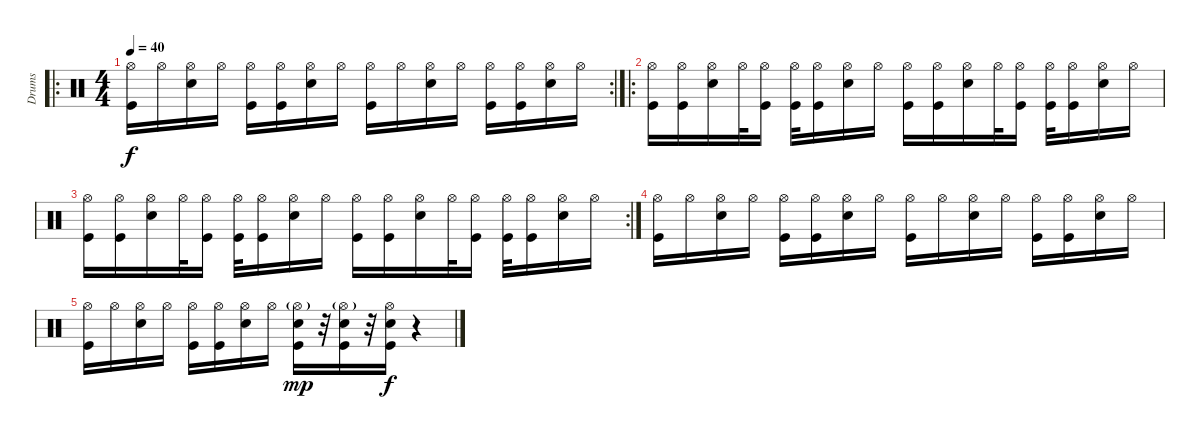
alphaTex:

\track ("Drums" "Drums") {instrument percussion}
\staff {score}
\articulation defaults
\ro
\rc 2
\ts (4 4)
\tempo 40
\clef neutral
\ks c
("Hi-Hat (open)" "Kick (hit)").16{dy f} "Hi-Hat (open)".16 ("Hi-Hat (open)" "Snare (hit) 2").16 "Hi-Hat (open)".16 ("Hi-Hat (open)" "Kick (hit)").16 ("Hi-Hat (open)" "Kick (hit)").16 ("Hi-Hat (open)" "Snare (hit) 2").16 "Hi-Hat (open)".16 ("Hi-Hat (open)" "Kick (hit)").16 "Hi-Hat (open)".16 ("Hi-Hat (open)" "Snare (hit) 2").16 "Hi-Hat (open)".16 ("Hi-Hat (open)" "Kick (hit)").16 ("Hi-Hat (open)" "Kick (hit)").16 ("Hi-Hat (open)" "Snare (hit) 2").16 "Hi-Hat (open)".16 |
\ro
("Hi-Hat (open)" "Kick (hit)").16 ("Hi-Hat (open)" "Kick (hit)").16 ("Hi-Hat (open)" "Snare (hit) 2").16 "Hi-Hat (open)".32 ("Hi-Hat (open)" "Kick (hit)").16 ("Hi-Hat (open)" "Kick (hit)").32 ("Hi-Hat (open)" "Kick (hit)").16 ("Hi-Hat (open)" "Snare (hit) 2").16 "Hi-Hat (open)".16 ("Hi-Hat (open)" "Kick (hit)").16 ("Hi-Hat (open)" "Kick (hit)").16 ("Hi-Hat (open)" "Snare (hit) 2").16 "Hi-Hat (open)".32 ("Hi-Hat (open)" "Kick (hit)").16 ("Hi-Hat (open)" "Kick (hit)").32 ("Hi-Hat (open)" "Kick (hit)").16 ("Hi-Hat (open)" "Snare (hit) 2").16 "Hi-Hat (open)".16 |
\rc 2
("Hi-Hat (open)" "Kick (hit)").16 ("Hi-Hat (open)" "Kick (hit)").16 ("Hi-Hat (open)" "Snare (hit) 2").16 "Hi-Hat (open)".32 ("Hi-Hat (open)" "Kick (hit)").16 ("Hi-Hat (open)" "Kick (hit)").32 ("Hi-Hat (open)" "Kick (hit)").16 ("Hi-Hat (open)" "Snare (hit) 2").16 "Hi-Hat (open)".16 ("Hi-Hat (open)" "Kick (hit)").16 ("Hi-Hat (open)" "Kick (hit)").16 ("Hi-Hat (open)" "Snare (hit) 2").16 "Hi-Hat (open)".32 ("Hi-Hat (open)" "Kick (hit)").16 ("Hi-Hat (open)" "Kick (hit)").32 ("Hi-Hat (open)" "Kick (hit)").16 ("Hi-Hat (open)" "Snare (hit) 2").16 "Hi-Hat (open)".16 |
("Hi-Hat (open)" "Kick (hit)").16 "Hi-Hat (open)".16 ("Hi-Hat (open)" "Snare (hit) 2").16 "Hi-Hat (open)".16 ("Hi-Hat (open)" "Kick (hit)").16 ("Hi-Hat (open)" "Kick (hit)").16 ("Hi-Hat (open)" "Snare (hit) 2").16 "Hi-Hat (open)".16 ("Hi-Hat (open)" "Kick (hit)").16 "Hi-Hat (open)".16 ("Hi-Hat (open)" "Snare (hit) 2").16 "Hi-Hat (open)".16 ("Hi-Hat (open)" "Kick (hit)").16 ("Hi-Hat (open)" "Kick (hit)").16 ("Hi-Hat (open)" "Snare (hit) 2").16 "Hi-Hat (open)".16 |
("Hi-Hat (open)" "Kick (hit)").16 "Hi-Hat (open)".16 ("Hi-Hat (open)" "Snare (hit) 2").16 "Hi-Hat (open)".16 ("Hi-Hat (open)" "Kick (hit)").16 ("Hi-Hat (open)" "Kick (hit)").16 ("Hi-Hat (open)" "Snare (hit) 2").16 "Hi-Hat (open)".16 ("Hi-Hat (open)"{g} "Snare (hit) 2" "Kick (hit)").16{dy mp} r.32 ("Hi-Hat (open)"{g} "Snare (hit) 2" "Kick (hit)").16 r.32 ("Hi-Hat (open)" "Snare (hit) 2" "Kick (hit)").16{dy f} r.4
